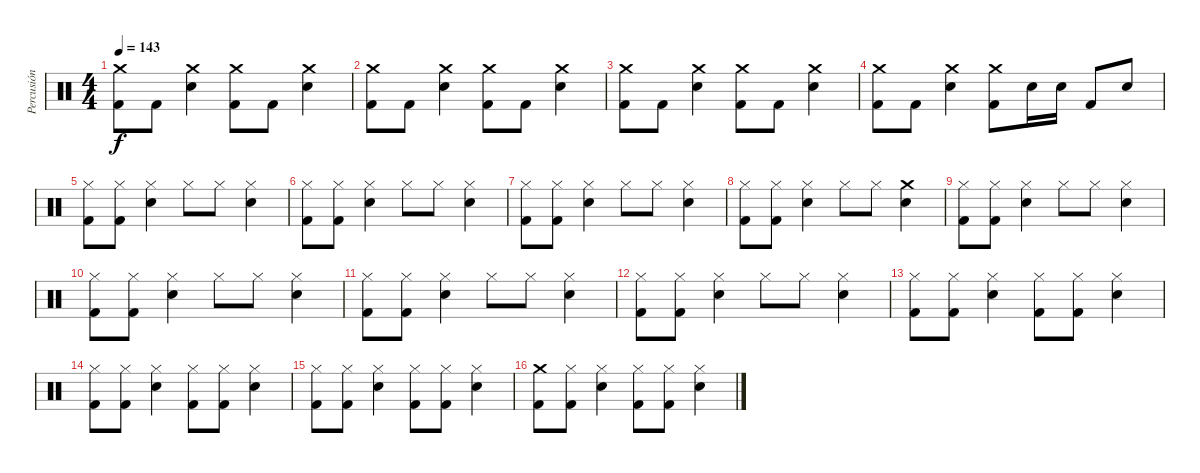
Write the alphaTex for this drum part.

\track ("Percusión" "Percusión") {instrument percussion}
\staff {score}
\articulation defaults
\ts (4 4)
\tempo 143
\clef neutral
\ks c
("Crash medium (hit)" "Kick (hit) 2").8{dy f} "Kick (hit) 2".8 ("Crash medium (hit)" "Snare (hit) 2").4 ("Crash medium (hit)" "Kick (hit) 2").8 "Kick (hit) 2".8 ("Crash medium (hit)" "Snare (hit) 2").4 |
("Crash medium (hit)" "Kick (hit) 2").8 "Kick (hit) 2".8 ("Crash medium (hit)" "Snare (hit) 2").4 ("Crash medium (hit)" "Kick (hit) 2").8 "Kick (hit) 2".8 ("Crash medium (hit)" "Snare (hit) 2").4 |
("Crash medium (hit)" "Kick (hit) 2").8 "Kick (hit) 2".8 ("Crash medium (hit)" "Snare (hit) 2").4 ("Crash medium (hit)" "Kick (hit) 2").8 "Kick (hit) 2".8 ("Crash medium (hit)" "Snare (hit) 2").4 |
("Crash medium (hit)" "Kick (hit) 2").8 "Kick (hit) 2".8 ("Crash medium (hit)" "Snare (hit) 2").4 ("Crash medium (hit)" "Kick (hit) 2").8 "Snare (hit) 2".16 "Snare (hit) 2".16 "Kick (hit) 2".8 "Snare (hit) 2".8 |
("Hi-Hat (closed)" "Kick (hit) 2").8 ("Hi-Hat (closed)" "Kick (hit) 2").8 ("Hi-Hat (closed)" "Snare (hit) 2").4 "Hi-Hat (closed)".8 "Hi-Hat (closed)".8 ("Hi-Hat (closed)" "Snare (hit) 2").4 |
("Hi-Hat (closed)" "Kick (hit) 2").8 ("Hi-Hat (closed)" "Kick (hit) 2").8 ("Hi-Hat (closed)" "Snare (hit) 2").4 "Hi-Hat (closed)".8 "Hi-Hat (closed)".8 ("Hi-Hat (closed)" "Snare (hit) 2").4 |
("Hi-Hat (closed)" "Kick (hit) 2").8 ("Hi-Hat (closed)" "Kick (hit) 2").8 ("Hi-Hat (closed)" "Snare (hit) 2").4 "Hi-Hat (closed)".8 "Hi-Hat (closed)".8 ("Hi-Hat (closed)" "Snare (hit) 2").4 |
("Hi-Hat (closed)" "Kick (hit) 2").8 ("Hi-Hat (closed)" "Kick (hit) 2").8 ("Hi-Hat (closed)" "Snare (hit) 2").4 "Hi-Hat (closed)".8 "Hi-Hat (closed)".8 ("Crash medium (hit)" "Snare (hit) 2").4 |
("Hi-Hat (closed)" "Kick (hit) 2").8 ("Hi-Hat (closed)" "Kick (hit) 2").8 ("Hi-Hat (closed)" "Snare (hit) 2").4 "Hi-Hat (closed)".8 "Hi-Hat (closed)".8 ("Hi-Hat (closed)" "Snare (hit) 2").4 |
("Hi-Hat (closed)" "Kick (hit) 2").8 ("Hi-Hat (closed)" "Kick (hit) 2").8 ("Hi-Hat (closed)" "Snare (hit) 2").4 "Hi-Hat (closed)".8 "Hi-Hat (closed)".8 ("Hi-Hat (closed)" "Snare (hit) 2").4 |
("Hi-Hat (closed)" "Kick (hit) 2").8 ("Hi-Hat (closed)" "Kick (hit) 2").8 ("Hi-Hat (closed)" "Snare (hit) 2").4 "Hi-Hat (closed)".8 "Hi-Hat (closed)".8 ("Hi-Hat (closed)" "Snare (hit) 2").4 |
("Hi-Hat (closed)" "Kick (hit) 2").8 ("Hi-Hat (closed)" "Kick (hit) 2").8 ("Hi-Hat (closed)" "Snare (hit) 2").4 "Hi-Hat (closed)".8 "Hi-Hat (closed)".8 ("Hi-Hat (closed)" "Snare (hit) 2").4 |
("Hi-Hat (closed)" "Kick (hit) 2").8 ("Hi-Hat (closed)" "Kick (hit) 2").8 ("Hi-Hat (closed)" "Snare (hit) 2").4 ("Hi-Hat (closed)" "Kick (hit) 2").8 ("Hi-Hat (closed)" "Kick (hit) 2").8 ("Hi-Hat (closed)" "Snare (hit) 2").4 |
("Hi-Hat (closed)" "Kick (hit) 2").8 ("Hi-Hat (closed)" "Kick (hit) 2").8 ("Hi-Hat (closed)" "Snare (hit) 2").4 ("Hi-Hat (closed)" "Kick (hit) 2").8 ("Hi-Hat (closed)" "Kick (hit) 2").8 ("Hi-Hat (closed)" "Snare (hit) 2").4 |
("Hi-Hat (closed)" "Kick (hit) 2").8 ("Hi-Hat (closed)" "Kick (hit) 2").8 ("Hi-Hat (closed)" "Snare (hit) 2").4 ("Hi-Hat (closed)" "Kick (hit) 2").8 ("Hi-Hat (closed)" "Kick (hit) 2").8 ("Hi-Hat (closed)" "Snare (hit) 2").4 |
("Crash medium (hit)" "Kick (hit) 2").8 ("Hi-Hat (closed)" "Kick (hit) 2").8 ("Hi-Hat (closed)" "Snare (hit) 2").4 ("Hi-Hat (closed)" "Kick (hit) 2").8 ("Hi-Hat (closed)" "Kick (hit) 2").8 ("Hi-Hat (closed)" "Snare (hit) 2").4
